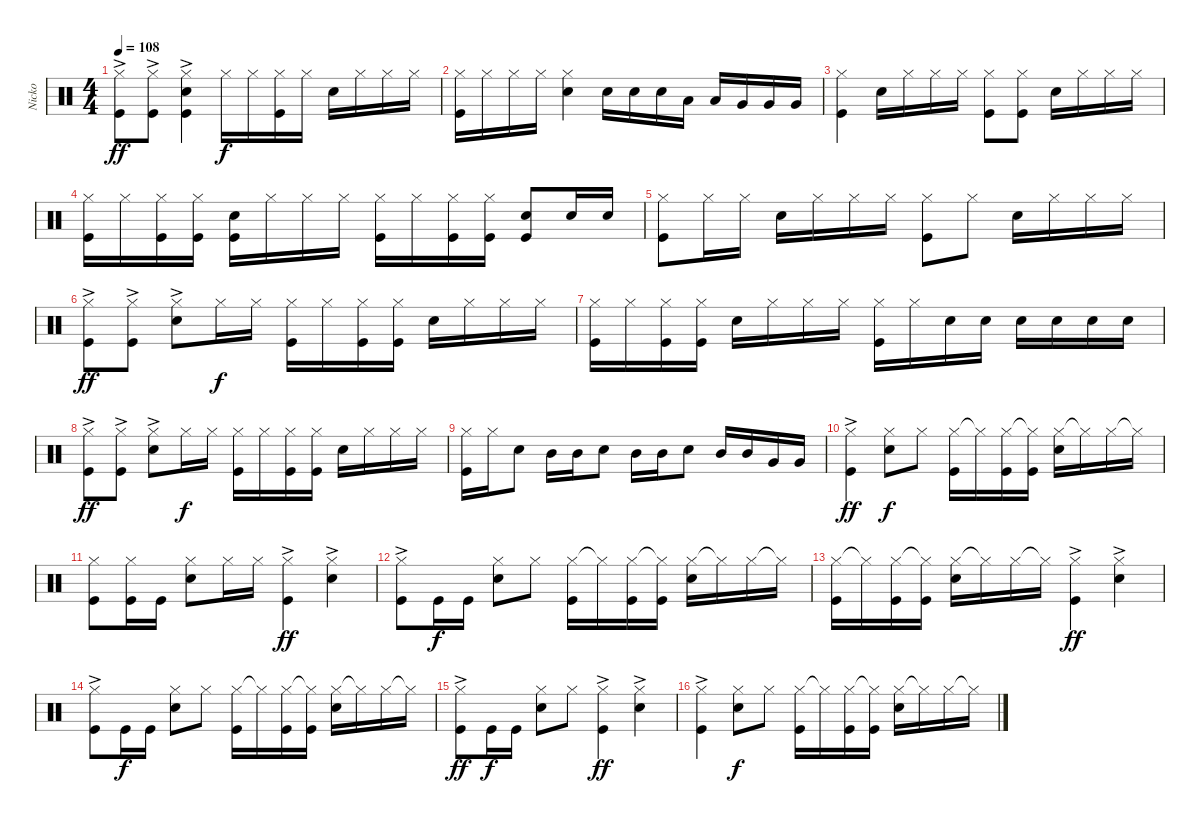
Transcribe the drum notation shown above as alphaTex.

\track ("Nicko" "Nicko") {instrument percussion}
\staff {score}
\articulation defaults
\ts (4 4)
\tempo 108
\clef neutral
\ks c
("Hi-Hat (closed)"{ac} "Kick (hit)").8{dy ff} ("Hi-Hat (closed)"{ac} "Kick (hit)").8 ("Hi-Hat (closed)" "Snare (hit) 2"{ac} "Kick (hit)").4 "Hi-Hat (closed)".16{dy f} "Hi-Hat (closed)".16 ("Hi-Hat (closed)" "Kick (hit)").16 "Hi-Hat (closed)".16 "Snare (hit) 2".16 "Hi-Hat (closed)".16 "Hi-Hat (closed)".16 "Hi-Hat (closed)".16 |
("Hi-Hat (closed)" "Kick (hit)").16 "Hi-Hat (closed)".16 "Hi-Hat (closed)".16 "Hi-Hat (closed)".16 ("Hi-Hat (closed)" "Snare (hit) 2").4 "Snare (hit) 2".16 "Snare (hit) 2".16 "Snare (hit) 2".16 "Low Tom (hit)".16 "Low Tom (hit)".16 "Very Low Tom (hit)".16 "Very Low Tom (hit)".16 "Very Low Tom (hit)".16 |
("Hi-Hat (closed)" "Kick (hit)").4 "Snare (hit) 2".16 "Hi-Hat (closed)".16 "Hi-Hat (closed)".16 "Hi-Hat (closed)".16 ("Hi-Hat (closed)" "Kick (hit)").8 ("Hi-Hat (closed)" "Kick (hit)").8 "Snare (hit) 2".16 "Hi-Hat (closed)".16 "Hi-Hat (closed)".16 "Hi-Hat (closed)".16 |
("Hi-Hat (closed)" "Kick (hit)").16 "Hi-Hat (closed)".16 ("Hi-Hat (closed)" "Kick (hit)").16 ("Hi-Hat (closed)" "Kick (hit)").16 ("Kick (hit)" "Snare (hit) 2").16 "Hi-Hat (closed)".16 "Hi-Hat (closed)".16 "Hi-Hat (closed)".16 ("Hi-Hat (closed)" "Kick (hit)").16 "Hi-Hat (closed)".16 ("Hi-Hat (closed)" "Kick (hit)").16 ("Hi-Hat (closed)" "Kick (hit)").16 ("Kick (hit)" "Snare (hit) 2").8 "Snare (hit) 2".16 "Snare (hit) 2".16 |
("Hi-Hat (closed)" "Kick (hit)").8 "Hi-Hat (closed)".16 "Hi-Hat (closed)".16 "Snare (hit) 2".16 "Hi-Hat (closed)".16 "Hi-Hat (closed)".16 "Hi-Hat (closed)".16 ("Hi-Hat (closed)" "Kick (hit)").8 "Hi-Hat (closed)".8 "Snare (hit) 2".16 "Hi-Hat (closed)".16 "Hi-Hat (closed)".16 "Hi-Hat (closed)".16 |
("Hi-Hat (closed)" "Kick (hit)"{ac}).8{dy ff} ("Hi-Hat (closed)" "Kick (hit)"{ac}).8 ("Hi-Hat (closed)" "Snare (hit) 2"{ac}).8 "Hi-Hat (closed)".16{dy f} "Hi-Hat (closed)".16 ("Hi-Hat (closed)" "Kick (hit)").16 "Hi-Hat (closed)".16 ("Hi-Hat (closed)" "Kick (hit)").16 ("Hi-Hat (closed)" "Kick (hit)").16 "Snare (hit) 2".16 "Hi-Hat (closed)".16 "Hi-Hat (closed)".16 "Hi-Hat (closed)".16 |
("Hi-Hat (closed)" "Kick (hit)").16 "Hi-Hat (closed)".16 ("Hi-Hat (closed)" "Kick (hit)").16 ("Hi-Hat (closed)" "Kick (hit)").16 "Snare (hit) 2".16 "Hi-Hat (closed)".16 "Hi-Hat (closed)".16 "Hi-Hat (closed)".16 ("Hi-Hat (closed)" "Kick (hit)").16 "Hi-Hat (closed)".16 "Snare (hit) 2".16 "Snare (hit) 2".16 "Snare (hit) 2".16 "Snare (hit) 2".16 "Snare (hit) 2".16 "Snare (hit) 2".16 |
("Hi-Hat (closed)" "Kick (hit)"{ac}).8{dy ff} ("Hi-Hat (closed)" "Kick (hit)"{ac}).8 ("Hi-Hat (closed)" "Snare (hit) 2"{ac}).8 "Hi-Hat (closed)".16{dy f} "Hi-Hat (closed)".16 ("Hi-Hat (closed)" "Kick (hit)").16 "Hi-Hat (closed)".16 ("Hi-Hat (closed)" "Kick (hit)").16 ("Hi-Hat (closed)" "Kick (hit)").16 "Snare (hit) 2".16 "Hi-Hat (closed)".16 "Hi-Hat (closed)".16 "Hi-Hat (closed)".16 |
("Hi-Hat (closed)" "Kick (hit)").16 "Hi-Hat (closed)".16 "Snare (hit) 2".8 "Mid Tom (hit)".16 "Mid Tom (hit)".16 "Snare (hit) 2".8 "Mid Tom (hit)".16 "Mid Tom (hit)".16 "Snare (hit) 2".8 "Mid Tom (hit)".16 "Mid Tom (hit)".16 "Very Low Tom (hit)".16 "Very Low Tom (hit)".16 |
("Hi-Hat (closed)"{ac} "Kick (hit)").4{dy ff} ("Hi-Hat (closed)" "Snare (hit) 2").8{dy f} "Hi-Hat (closed)".8 ("Hi-Hat (closed)" "Kick (hit)").16 "Hi-Hat (closed)"{t}.16 ("Hi-Hat (closed)" "Kick (hit)").16 ("Hi-Hat (closed)"{t} "Kick (hit)").16 ("Hi-Hat (closed)" "Snare (hit) 2").16 "Hi-Hat (closed)"{t}.16 "Hi-Hat (closed)".16 "Hi-Hat (closed)"{t}.16 |
("Hi-Hat (closed)" "Kick (hit)").8 ("Hi-Hat (closed)" "Kick (hit)").16 "Kick (hit)".16 ("Hi-Hat (closed)" "Snare (hit) 2").8 "Hi-Hat (closed)".16 "Hi-Hat (closed)".16 ("Hi-Hat (closed)" "Kick (hit)"{ac}).4{dy ff} ("Hi-Hat (closed)"{ac} "Snare (hit) 2").4 |
("Hi-Hat (closed)" "Kick (hit)"{ac}).8 "Kick (hit)".16{dy f} "Kick (hit)".16 ("Hi-Hat (closed)" "Snare (hit) 2").8 "Hi-Hat (closed)".8 ("Hi-Hat (closed)" "Kick (hit)").16 "Hi-Hat (closed)"{t}.16 ("Hi-Hat (closed)" "Kick (hit)").16 ("Hi-Hat (closed)"{t} "Kick (hit)").16 ("Hi-Hat (closed)" "Snare (hit) 2").16 "Hi-Hat (closed)"{t}.16 "Hi-Hat (closed)".16 "Hi-Hat (closed)"{t}.16 |
("Hi-Hat (closed)" "Kick (hit)").16 "Hi-Hat (closed)"{t}.16 ("Hi-Hat (closed)" "Kick (hit)").16 ("Hi-Hat (closed)"{t} "Kick (hit)").16 ("Hi-Hat (closed)" "Snare (hit) 2").16 "Hi-Hat (closed)"{t}.16 "Hi-Hat (closed)".16 "Hi-Hat (closed)"{t}.16 ("Hi-Hat (closed)" "Kick (hit)"{ac}).4{dy ff} ("Hi-Hat (closed)"{ac} "Snare (hit) 2").4 |
("Hi-Hat (closed)" "Kick (hit)"{ac}).8 "Kick (hit)".16{dy f} "Kick (hit)".16 ("Hi-Hat (closed)" "Snare (hit) 2").8 "Hi-Hat (closed)".8 ("Hi-Hat (closed)" "Kick (hit)").16 "Hi-Hat (closed)"{t}.16 ("Hi-Hat (closed)" "Kick (hit)").16 ("Hi-Hat (closed)"{t} "Kick (hit)").16 ("Hi-Hat (closed)" "Snare (hit) 2").16 "Hi-Hat (closed)"{t}.16 "Hi-Hat (closed)".16 "Hi-Hat (closed)"{t}.16 |
("Hi-Hat (closed)" "Kick (hit)"{ac}).8{dy ff} "Kick (hit)".16{dy f} "Kick (hit)".16 ("Hi-Hat (closed)" "Snare (hit) 2").8 "Hi-Hat (closed)".8 ("Hi-Hat (closed)" "Kick (hit)"{ac}).4{dy ff} ("Hi-Hat (closed)"{ac} "Snare (hit) 2").4 |
("Hi-Hat (closed)"{ac} "Kick (hit)").4 ("Hi-Hat (closed)" "Snare (hit) 2").8{dy f} "Hi-Hat (closed)".8 ("Hi-Hat (closed)" "Kick (hit)").16 "Hi-Hat (closed)"{t}.16 ("Hi-Hat (closed)" "Kick (hit)").16 ("Hi-Hat (closed)"{t} "Kick (hit)").16 ("Hi-Hat (closed)" "Snare (hit) 2").16 "Hi-Hat (closed)"{t}.16 "Hi-Hat (closed)".16 "Hi-Hat (closed)"{t}.16
